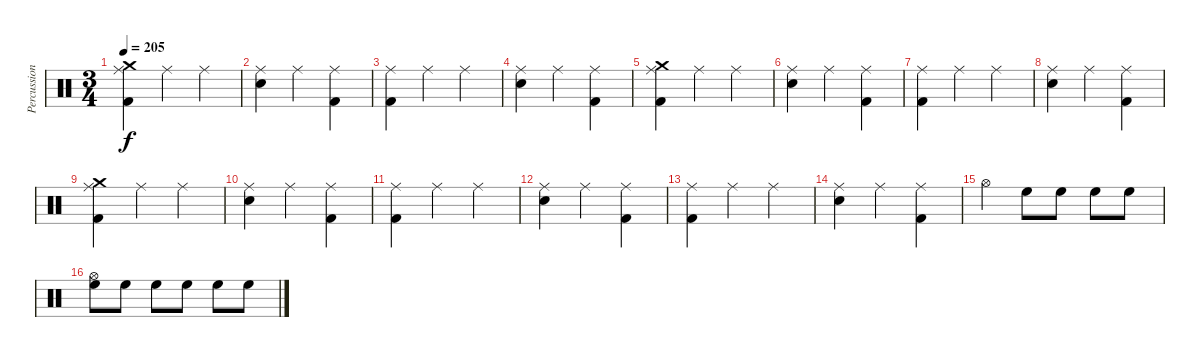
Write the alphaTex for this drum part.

\track ("Percussion" "Percussion") {instrument percussion}
\staff {score}
\articulation defaults
\ts (3 4)
\tempo 205
\clef neutral
\ks c
("Ride (middle)" "Crash medium (hit)" "Kick (hit) 2").4{dy f} "Ride (middle)".4 "Ride (middle)".4 |
("Ride (middle)" "Electric Snare (hit)").4 "Ride (middle)".4 ("Ride (middle)" "Kick (hit) 2").4 |
("Ride (middle)" "Kick (hit) 2").4 "Ride (middle)".4 "Ride (middle)".4 |
("Ride (middle)" "Electric Snare (hit)").4 "Ride (middle)".4 ("Ride (middle)" "Kick (hit) 2").4 |
("Ride (middle)" "Crash medium (hit)" "Kick (hit) 2").4 "Ride (middle)".4 "Ride (middle)".4 |
("Ride (middle)" "Electric Snare (hit)").4 "Ride (middle)".4 ("Ride (middle)" "Kick (hit) 2").4 |
("Ride (middle)" "Kick (hit) 2").4 "Ride (middle)".4 "Ride (middle)".4 |
("Ride (middle)" "Electric Snare (hit)").4 "Ride (middle)".4 ("Ride (middle)" "Kick (hit) 2").4 |
("Ride (middle)" "Crash medium (hit)" "Kick (hit) 2").4 "Ride (middle)".4 "Ride (middle)".4 |
("Ride (middle)" "Electric Snare (hit)").4 "Ride (middle)".4 ("Ride (middle)" "Kick (hit) 2").4 |
("Ride (middle)" "Kick (hit) 2").4 "Ride (middle)".4 "Ride (middle)".4 |
("Ride (middle)" "Electric Snare (hit)").4 "Ride (middle)".4 ("Ride (middle)" "Kick (hit) 2").4 |
("Ride (middle)" "Kick (hit) 2").4 "Ride (middle)".4 "Ride (middle)".4 |
("Ride (middle)" "Electric Snare (hit)").4 "Ride (middle)".4 ("Ride (middle)" "Kick (hit) 2").4 |
"Hi-Hat (open)".4 "High Floor Tom (hit)".8 "High Floor Tom (hit)".8 "High Floor Tom (hit)".8 "High Floor Tom (hit)".8 |
("Hi-Hat (open)" "High Floor Tom (hit)").8 "High Floor Tom (hit)".8 "High Floor Tom (hit)".8 "High Floor Tom (hit)".8 "High Floor Tom (hit)".8 "High Floor Tom (hit)".8
